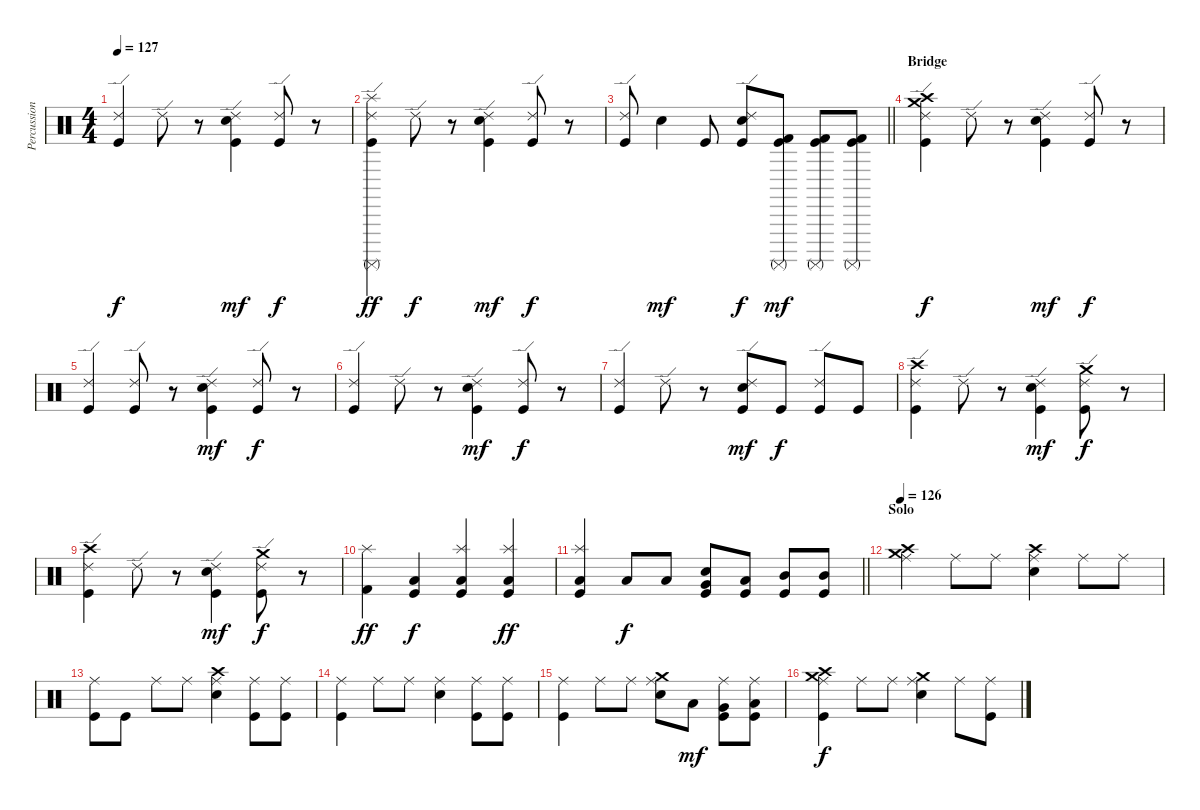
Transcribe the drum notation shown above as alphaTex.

\track ("Percussion" "Percussion") {instrument percussion}
\staff {score}
\articulation defaults
\ts (4 4)
\tempo 127
\clef neutral
\ks c
("Ride (edge) 2" "Kick (hit)").4{dy f} "Ride (edge) 2".8 r.8 ("Ride (edge) 2" "Kick (hit)" "Electric Snare (hit)").4{dy mf} ("Ride (edge) 2" "Kick (hit)").8{dy f} r.8 |
("Surdo (mute)" "Ride (edge) 2" "Kick (hit)" "Splash (hit)").4{dy ff} "Ride (edge) 2".8{dy f} r.8 ("Ride (edge) 2" "Kick (hit)" "Electric Snare (hit)").4{dy mf} ("Ride (edge) 2" "Kick (hit)").8{dy f} r.8 |
\barLineRight lightlight
("Ride (edge) 2" "Kick (hit)").8 "Electric Snare (hit)".4{dy mf} "Kick (hit)".8 ("Ride (edge) 2" "Kick (hit)" "Electric Snare (hit)").8{dy f} ("Kick (hit) 2" "Kick (hit)" "Surdo (mute)").8{dy mf} ("Kick (hit) 2" "Kick (hit)" "Surdo (mute)").8 ("Kick (hit) 2" "Kick (hit)" "Surdo (mute)").8 |
\section ("" "Bridge")
("Ride (edge) 2" "Kick (hit)" "Crash medium (hit)" "Crash high (hit)").4{dy f} "Ride (edge) 2".8 r.8 ("Ride (edge) 2" "Kick (hit)" "Electric Snare (hit)").4{dy mf} ("Ride (edge) 2" "Kick (hit)").8{dy f} r.8 |
("Ride (edge) 2" "Kick (hit)").4 ("Ride (edge) 2" "Kick (hit)").8 r.8 ("Ride (edge) 2" "Kick (hit)" "Electric Snare (hit)").4{dy mf} ("Ride (edge) 2" "Kick (hit)").8{dy f} r.8 |
("Ride (edge) 2" "Kick (hit)").4 "Ride (edge) 2".8 r.8 ("Ride (edge) 2" "Kick (hit)" "Electric Snare (hit)").4{dy mf} ("Ride (edge) 2" "Kick (hit)").8{dy f} r.8 |
("Ride (edge) 2" "Kick (hit)").4 "Ride (edge) 2".8 r.8 ("Ride (edge) 2" "Kick (hit)" "Electric Snare (hit)").8{dy mf} "Kick (hit)".8{dy f} ("Ride (edge) 2" "Kick (hit)").8 "Kick (hit)".8 |
("Ride (edge) 2" "Kick (hit)" "Crash high (hit)").4 "Ride (edge) 2".8 r.8 ("Ride (edge) 2" "Kick (hit)" "Electric Snare (hit)").4{dy mf} ("Ride (edge) 2" "Kick (hit)" "Crash medium (hit)").8{dy f} r.8 |
("Ride (edge) 2" "Kick (hit)" "Crash high (hit)").4 "Ride (edge) 2".8 r.8 ("Ride (edge) 2" "Kick (hit)" "Electric Snare (hit)").4{dy mf} ("Ride (edge) 2" "Kick (hit)" "Crash medium (hit)").8{dy f} r.8 |
("Splash (hit)" "Kick (hit) 2").4{dy ff} ("Kick (hit)" "Low Floor Tom (hit)").4{dy f} ("Splash (hit)" "Kick (hit)" "Low Floor Tom (hit)").4 ("Splash (hit)" "Kick (hit)" "Low Floor Tom (hit)").4{dy ff} |
\barLineRight lightlight
("Splash (hit)" "Kick (hit)" "Low Floor Tom (hit)").4 "Low Floor Tom (hit)".8{dy f} "Low Floor Tom (hit)".8 ("Electric Snare (hit)" "Kick (hit)" "Very Low Tom (hit)").8 ("Kick (hit)" "Low Tom (hit)").8 ("Kick (hit)" "Mid Tom (hit)").8 ("Kick (hit)" "Mid Tom (hit)").8 |
\section ("" "Solo")
\tempo 126
("Ride (middle)" "Crash medium (hit)" "Crash high (hit)").4 "Ride (middle)".8 "Ride (middle)".8 ("Ride (middle)" "Snare (hit) 2" "Crash high (hit)").4 "Ride (middle)".8 "Ride (middle)".8 |
("Ride (middle)" "Kick (hit)").8 "Kick (hit)".8 "Ride (middle)".8 "Ride (middle)".8 ("Ride (middle)" "Electric Snare (hit)" "Crash high (hit)").4 ("Ride (middle)" "Kick (hit)").8 ("Ride (middle)" "Kick (hit)").8 |
("Ride (middle)" "Kick (hit)").4 "Ride (middle)".8 "Ride (middle)".8 ("Ride (middle)" "Electric Snare (hit)").4 ("Ride (middle)" "Kick (hit)").8 ("Ride (middle)" "Kick (hit)").8 |
("Ride (middle)" "Kick (hit)").4 "Ride (middle)".8 "Ride (middle)".8 ("Ride (middle)" "Electric Snare (hit)" "Crash medium (hit)").8 "Low Tom (hit)".8{dy mf} ("Ride (middle)" "Kick (hit)" "Very Low Tom (hit)").8 ("Ride (middle)" "Kick (hit)" "Low Floor Tom (hit)").8 |
("Ride (middle)" "Kick (hit)" "Crash medium (hit)" "Crash high (hit)").4{dy f} "Ride (middle)".8 "Ride (middle)".8 ("Ride (middle)" "Electric Snare (hit)" "Crash medium (hit)").4 "Ride (middle)".8 ("Ride (middle)" "Kick (hit)").8
